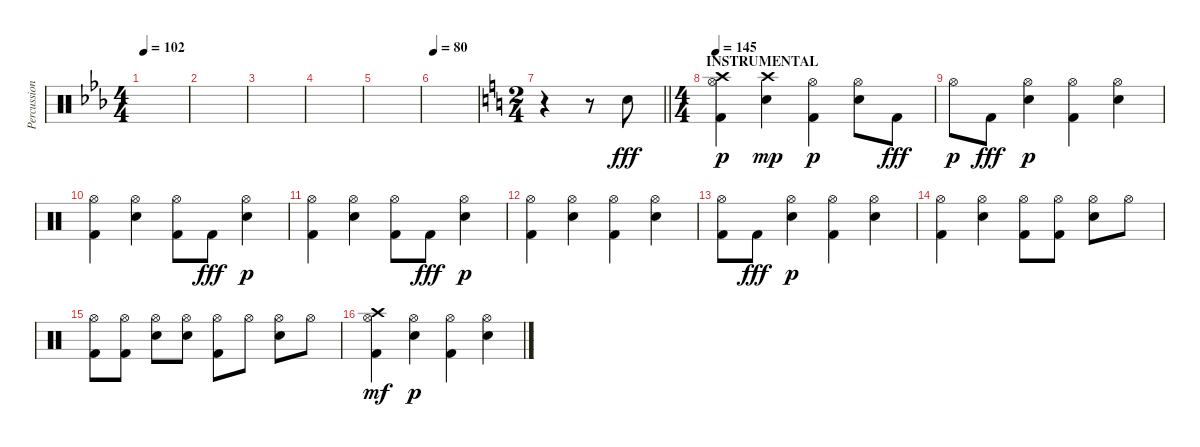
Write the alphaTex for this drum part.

\track ("Percussions" "Percussion") {instrument percussion}
\staff {score}
\articulation defaults
\ts (4 4)
\tempo 102
\clef neutral
\ks eb
|
|
|
|
|
\tempo 80
|
\ts (2 4)
\barLineRight lightlight
\ks c
r.4 r.8 "Snare (hit) 2".8{dy fff} |
\ts (4 4)
\section ("" "INSTRUMENTAL")
\tempo 145
("Kick (hit) 2" "Crash high (hit)" "Hi-Hat (open)").4{dy p} ("Snare (hit) 2" "Crash high (hit)").4{dy mp} ("Kick (hit) 2" "Hi-Hat (open)").4{dy p} ("Snare (hit) 2" "Hi-Hat (open)").8 "Kick (hit) 2".8{dy fff} |
"Hi-Hat (open)".8{dy p} "Kick (hit) 2".8{dy fff} ("Snare (hit) 2" "Hi-Hat (open)").4{dy p} ("Kick (hit) 2" "Hi-Hat (open)").4 ("Snare (hit) 2" "Hi-Hat (open)").4 |
("Kick (hit) 2" "Hi-Hat (open)").4 ("Snare (hit) 2" "Hi-Hat (open)").4 ("Kick (hit) 2" "Hi-Hat (open)").8 "Kick (hit) 2".8{dy fff} ("Snare (hit) 2" "Hi-Hat (open)").4{dy p} |
("Kick (hit) 2" "Hi-Hat (open)").4 ("Snare (hit) 2" "Hi-Hat (open)").4 ("Kick (hit) 2" "Hi-Hat (open)").8 "Kick (hit) 2".8{dy fff} ("Snare (hit) 2" "Hi-Hat (open)").4{dy p} |
("Kick (hit) 2" "Hi-Hat (open)").4 ("Snare (hit) 2" "Hi-Hat (open)").4 ("Kick (hit) 2" "Hi-Hat (open)").4 ("Snare (hit) 2" "Hi-Hat (open)").4 |
("Kick (hit) 2" "Hi-Hat (open)").8 "Kick (hit) 2".8{dy fff} ("Snare (hit) 2" "Hi-Hat (open)").4{dy p} ("Kick (hit) 2" "Hi-Hat (open)").4 ("Snare (hit) 2" "Hi-Hat (open)").4 |
("Kick (hit) 2" "Hi-Hat (open)").4 ("Snare (hit) 2" "Hi-Hat (open)").4 ("Kick (hit) 2" "Hi-Hat (open)").8 ("Kick (hit) 2" "Hi-Hat (open)").8 ("Snare (hit) 2" "Hi-Hat (open)").8 "Hi-Hat (open)".8 |
("Kick (hit) 2" "Hi-Hat (open)").8 ("Kick (hit) 2" "Hi-Hat (open)").8 ("Snare (hit) 2" "Hi-Hat (open)").8 ("Snare (hit) 2" "Hi-Hat (open)").8 ("Kick (hit) 2" "Hi-Hat (open)").8 "Hi-Hat (open)".8 ("Snare (hit) 2" "Hi-Hat (open)").8 "Hi-Hat (open)".8 |
("Kick (hit) 2" "Hi-Hat (open)" "Crash high (hit)").4{dy mf} ("Snare (hit) 2" "Hi-Hat (open)").4{dy p} ("Kick (hit) 2" "Hi-Hat (open)").4 ("Snare (hit) 2" "Hi-Hat (open)").4
